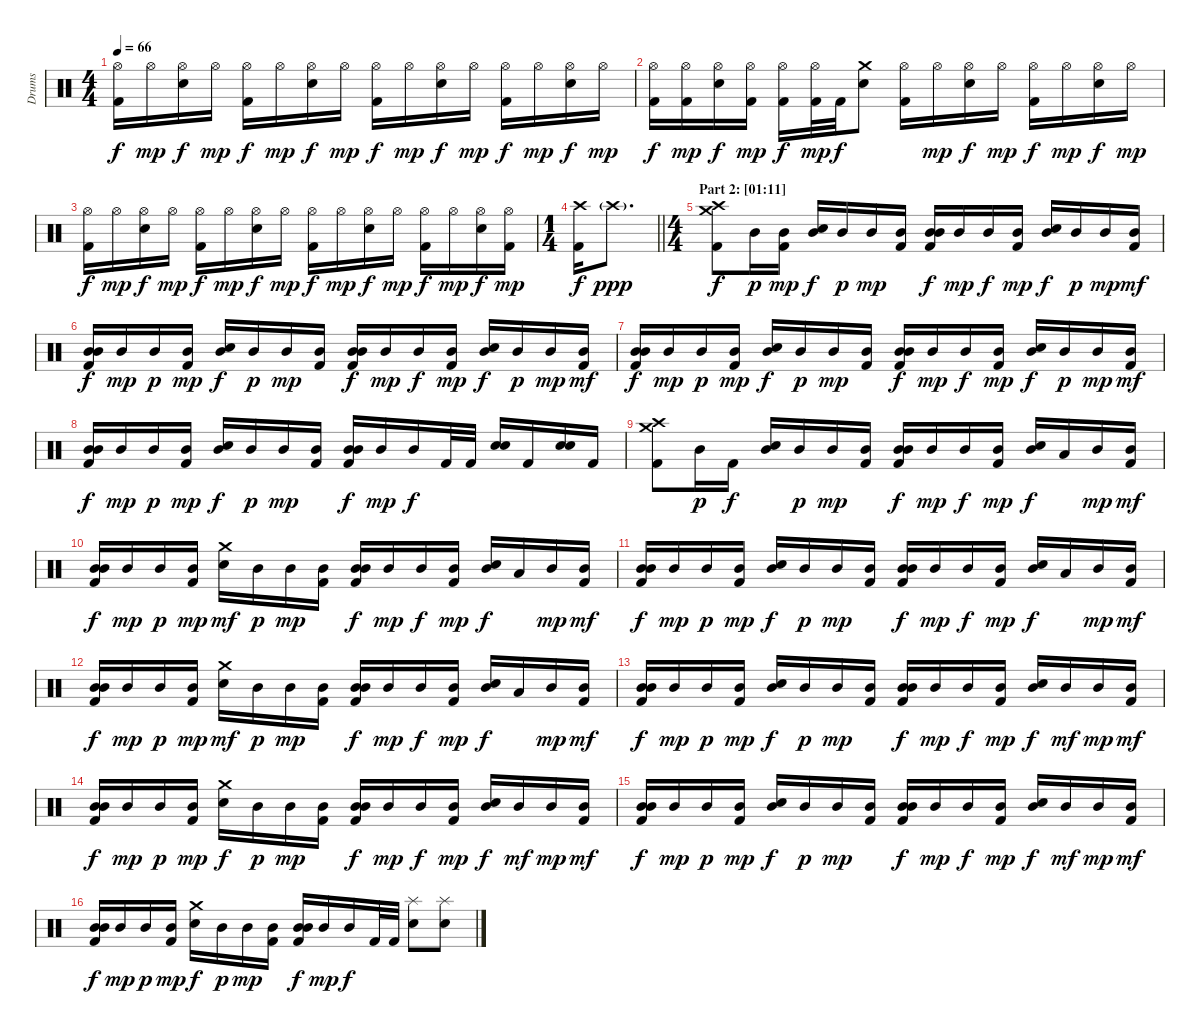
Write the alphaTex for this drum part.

\track ("Drums" "Drums") {instrument percussion}
\staff {score}
\articulation defaults
\ts (4 4)
\tempo 66
\clef neutral
\ks c
("Hi-Hat (open)" "Kick (hit) 2").16{dy f} "Hi-Hat (open)".16{dy mp} ("Hi-Hat (open)" "Electric Snare (hit)").16{dy f} "Hi-Hat (open)".16{dy mp} ("Hi-Hat (open)" "Kick (hit) 2").16{dy f} "Hi-Hat (open)".16{dy mp} ("Hi-Hat (open)" "Electric Snare (hit)").16{dy f} "Hi-Hat (open)".16{dy mp} ("Hi-Hat (open)" "Kick (hit) 2").16{dy f} "Hi-Hat (open)".16{dy mp} ("Hi-Hat (open)" "Electric Snare (hit)").16{dy f} "Hi-Hat (open)".16{dy mp} ("Hi-Hat (open)" "Kick (hit) 2").16{dy f} "Hi-Hat (open)".16{dy mp} ("Hi-Hat (open)" "Electric Snare (hit)").16{dy f} "Hi-Hat (open)".16{dy mp} |
("Hi-Hat (open)" "Kick (hit) 2").16{dy f} ("Hi-Hat (open)" "Kick (hit) 2").16{dy mp} ("Hi-Hat (open)" "Electric Snare (hit)").16{dy f} ("Hi-Hat (open)" "Kick (hit) 2").16{dy mp} ("Hi-Hat (open)" "Kick (hit) 2").16{dy f} ("Hi-Hat (open)" "Kick (hit) 2").32{dy mp} "Kick (hit) 2".32{dy f} ("Crash medium (hit)" "Electric Snare (hit)").8 ("Hi-Hat (open)" "Kick (hit) 2").16 "Hi-Hat (open)".16{dy mp} ("Hi-Hat (open)" "Electric Snare (hit)").16{dy f} "Hi-Hat (open)".16{dy mp} ("Hi-Hat (open)" "Kick (hit) 2").16{dy f} "Hi-Hat (open)".16{dy mp} ("Hi-Hat (open)" "Electric Snare (hit)").16{dy f} "Hi-Hat (open)".16{dy mp} |
("Hi-Hat (open)" "Kick (hit) 2").16{dy f} "Hi-Hat (open)".16{dy mp} ("Hi-Hat (open)" "Electric Snare (hit)").16{dy f} "Hi-Hat (open)".16{dy mp} ("Hi-Hat (open)" "Kick (hit) 2").16{dy f} "Hi-Hat (open)".16{dy mp} ("Hi-Hat (open)" "Electric Snare (hit)").16{dy f} "Hi-Hat (open)".16{dy mp} ("Hi-Hat (open)" "Kick (hit) 2").16{dy f} "Hi-Hat (open)".16{dy mp} ("Hi-Hat (open)" "Electric Snare (hit)").16{dy f} "Hi-Hat (open)".16{dy mp} ("Hi-Hat (open)" "Kick (hit) 2").16{dy f} "Hi-Hat (open)".16{dy mp} ("Hi-Hat (open)" "Electric Snare (hit)").16{dy f} ("Hi-Hat (open)" "Kick (hit) 2").16{dy mp} |
\ts (1 4)
\barLineRight lightlight
("Crash high (hit)" "Kick (hit) 2").16{dy f} "Crash high (hit)"{g}.8{d dy ppp} |
\ts (4 4)
\section ("" "Part 2: [01:11]")
("Crash high (hit)" "Crash medium (hit)" "Kick (hit) 2").8{dy f} "Mid Tom (hit)".16{dy p} ("Mid Tom (hit)" "Kick (hit) 2").16{dy mp} ("Mid Tom (hit)" "Electric Snare (hit)").16{dy f} "Mid Tom (hit)".16{dy p} "Mid Tom (hit)".16{dy mp} ("Mid Tom (hit)" "Kick (hit) 2").16 ("Mid Tom (hit)" "Mid Tom (hit)" "Kick (hit) 2").16{dy f} "Mid Tom (hit)".16{dy mp} "Mid Tom (hit)".16{dy f} ("Mid Tom (hit)" "Kick (hit) 2").16{dy mp} ("Mid Tom (hit)" "Electric Snare (hit)").16{dy f} "Mid Tom (hit)".16{dy p} "Mid Tom (hit)".16{dy mp} ("Mid Tom (hit)" "Kick (hit) 2").16{dy mf} |
("Mid Tom (hit)" "Mid Tom (hit)" "Kick (hit) 2").16{dy f} "Mid Tom (hit)".16{dy mp} "Mid Tom (hit)".16{dy p} ("Mid Tom (hit)" "Kick (hit) 2").16{dy mp} ("Mid Tom (hit)" "Electric Snare (hit)").16{dy f} "Mid Tom (hit)".16{dy p} "Mid Tom (hit)".16{dy mp} ("Mid Tom (hit)" "Kick (hit) 2").16 ("Mid Tom (hit)" "Mid Tom (hit)" "Kick (hit) 2").16{dy f} "Mid Tom (hit)".16{dy mp} "Mid Tom (hit)".16{dy f} ("Mid Tom (hit)" "Kick (hit) 2").16{dy mp} ("Mid Tom (hit)" "Electric Snare (hit)").16{dy f} "Mid Tom (hit)".16{dy p} "Mid Tom (hit)".16{dy mp} ("Mid Tom (hit)" "Kick (hit) 2").16{dy mf} |
("Mid Tom (hit)" "Mid Tom (hit)" "Kick (hit) 2").16{dy f} "Mid Tom (hit)".16{dy mp} "Mid Tom (hit)".16{dy p} ("Mid Tom (hit)" "Kick (hit) 2").16{dy mp} ("Mid Tom (hit)" "Electric Snare (hit)").16{dy f} "Mid Tom (hit)".16{dy p} "Mid Tom (hit)".16{dy mp} ("Mid Tom (hit)" "Kick (hit) 2").16 ("Mid Tom (hit)" "Mid Tom (hit)" "Kick (hit) 2").16{dy f} "Mid Tom (hit)".16{dy mp} "Mid Tom (hit)".16{dy f} ("Mid Tom (hit)" "Kick (hit) 2").16{dy mp} ("Mid Tom (hit)" "Electric Snare (hit)").16{dy f} "Mid Tom (hit)".16{dy p} "Mid Tom (hit)".16{dy mp} ("Mid Tom (hit)" "Kick (hit) 2").16{dy mf} |
("Mid Tom (hit)" "Mid Tom (hit)" "Kick (hit) 2").16{dy f} "Mid Tom (hit)".16{dy mp} "Mid Tom (hit)".16{dy p} ("Mid Tom (hit)" "Kick (hit) 2").16{dy mp} ("Mid Tom (hit)" "Electric Snare (hit)").16{dy f} "Mid Tom (hit)".16{dy p} "Mid Tom (hit)".16{dy mp} ("Mid Tom (hit)" "Kick (hit) 2").16 ("Mid Tom (hit)" "Mid Tom (hit)" "Kick (hit) 2").16{dy f} "Mid Tom (hit)".16{dy mp} "Mid Tom (hit)".16{dy f} "Kick (hit) 2".32 "Kick (hit) 2".32 ("Electric Snare (hit)" "Electric Snare (hit)").16{bd 60} "Kick (hit) 2".16 ("Electric Snare (hit)" "Electric Snare (hit)").16{bd 60} "Kick (hit) 2".16 |
("Crash high (hit)" "Crash medium (hit)" "Kick (hit) 2").8 "Mid Tom (hit)".16{dy p} "Kick (hit) 2".16{dy f} ("Mid Tom (hit)" "Electric Snare (hit)").16 "Mid Tom (hit)".16{dy p} "Mid Tom (hit)".16{dy mp} ("Mid Tom (hit)" "Kick (hit) 2").16 ("Mid Tom (hit)" "Mid Tom (hit)" "Kick (hit) 2").16{dy f} "Mid Tom (hit)".16{dy mp} "Mid Tom (hit)".16{dy f} ("Mid Tom (hit)" "Kick (hit) 2").16{dy mp} ("Mid Tom (hit)" "Electric Snare (hit)").16{dy f} "Low Tom (hit)".16 "Mid Tom (hit)".16{dy mp} ("Mid Tom (hit)" "Kick (hit) 2").16{dy mf} |
("Mid Tom (hit)" "Mid Tom (hit)" "Kick (hit) 2").16{dy f} "Mid Tom (hit)".16{dy mp} "Mid Tom (hit)".16{dy p} ("Mid Tom (hit)" "Kick (hit) 2").16{dy mp} ("Crash medium (hit)" "Electric Snare (hit)").16{dy mf} "Mid Tom (hit)".16{dy p} "Mid Tom (hit)".16{dy mp} ("Mid Tom (hit)" "Kick (hit) 2").16 ("Mid Tom (hit)" "Mid Tom (hit)" "Kick (hit) 2").16{dy f} "Mid Tom (hit)".16{dy mp} "Mid Tom (hit)".16{dy f} ("Mid Tom (hit)" "Kick (hit) 2").16{dy mp} ("Mid Tom (hit)" "Electric Snare (hit)").16{dy f} "Low Tom (hit)".16 "Mid Tom (hit)".16{dy mp} ("Mid Tom (hit)" "Kick (hit) 2").16{dy mf} |
("Mid Tom (hit)" "Mid Tom (hit)" "Kick (hit) 2").16{dy f} "Mid Tom (hit)".16{dy mp} "Mid Tom (hit)".16{dy p} ("Mid Tom (hit)" "Kick (hit) 2").16{dy mp} ("Mid Tom (hit)" "Electric Snare (hit)").16{dy f} "Mid Tom (hit)".16{dy p} "Mid Tom (hit)".16{dy mp} ("Mid Tom (hit)" "Kick (hit) 2").16 ("Mid Tom (hit)" "Mid Tom (hit)" "Kick (hit) 2").16{dy f} "Mid Tom (hit)".16{dy mp} "Mid Tom (hit)".16{dy f} ("Mid Tom (hit)" "Kick (hit) 2").16{dy mp} ("Mid Tom (hit)" "Electric Snare (hit)").16{dy f} "Low Tom (hit)".16 "Mid Tom (hit)".16{dy mp} ("Mid Tom (hit)" "Kick (hit) 2").16{dy mf} |
("Mid Tom (hit)" "Mid Tom (hit)" "Kick (hit) 2").16{dy f} "Mid Tom (hit)".16{dy mp} "Mid Tom (hit)".16{dy p} ("Mid Tom (hit)" "Kick (hit) 2").16{dy mp} ("Crash medium (hit)" "Electric Snare (hit)").16{dy mf} "Mid Tom (hit)".16{dy p} "Mid Tom (hit)".16{dy mp} ("Mid Tom (hit)" "Kick (hit) 2").16 ("Mid Tom (hit)" "Mid Tom (hit)" "Kick (hit) 2").16{dy f} "Mid Tom (hit)".16{dy mp} "Mid Tom (hit)".16{dy f} ("Mid Tom (hit)" "Kick (hit) 2").16{dy mp} ("Mid Tom (hit)" "Electric Snare (hit)").16{dy f} "Low Tom (hit)".16 "Mid Tom (hit)".16{dy mp} ("Mid Tom (hit)" "Kick (hit) 2").16{dy mf} |
("Mid Tom (hit)" "Mid Tom (hit)" "Kick (hit) 2").16{dy f} "Mid Tom (hit)".16{dy mp} "Mid Tom (hit)".16{dy p} ("Mid Tom (hit)" "Kick (hit) 2").16{dy mp} ("Mid Tom (hit)" "Electric Snare (hit)").16{dy f} "Mid Tom (hit)".16{dy p} "Mid Tom (hit)".16{dy mp} ("Mid Tom (hit)" "Kick (hit) 2").16 ("Mid Tom (hit)" "Mid Tom (hit)" "Kick (hit) 2").16{dy f} "Mid Tom (hit)".16{dy mp} "Mid Tom (hit)".16{dy f} ("Mid Tom (hit)" "Kick (hit) 2").16{dy mp} ("Mid Tom (hit)" "Electric Snare (hit)").16{dy f} "Mid Tom (hit)".16{dy mf} "Mid Tom (hit)".16{dy mp} ("Mid Tom (hit)" "Kick (hit) 2").16{dy mf} |
("Mid Tom (hit)" "Mid Tom (hit)" "Kick (hit) 2").16{dy f} "Mid Tom (hit)".16{dy mp} "Mid Tom (hit)".16{dy p} ("Mid Tom (hit)" "Kick (hit) 2").16{dy mp} ("Crash medium (hit)" "Electric Snare (hit)").16{dy f} "Mid Tom (hit)".16{dy p} "Mid Tom (hit)".16{dy mp} ("Mid Tom (hit)" "Kick (hit) 2").16 ("Mid Tom (hit)" "Mid Tom (hit)" "Kick (hit) 2").16{dy f} "Mid Tom (hit)".16{dy mp} "Mid Tom (hit)".16{dy f} ("Mid Tom (hit)" "Kick (hit) 2").16{dy mp} ("Mid Tom (hit)" "Electric Snare (hit)").16{dy f} "Mid Tom (hit)".16{dy mf} "Mid Tom (hit)".16{dy mp} ("Mid Tom (hit)" "Kick (hit) 2").16{dy mf} |
("Mid Tom (hit)" "Mid Tom (hit)" "Kick (hit) 2").16{dy f} "Mid Tom (hit)".16{dy mp} "Mid Tom (hit)".16{dy p} ("Mid Tom (hit)" "Kick (hit) 2").16{dy mp} ("Mid Tom (hit)" "Electric Snare (hit)").16{dy f} "Mid Tom (hit)".16{dy p} "Mid Tom (hit)".16{dy mp} ("Mid Tom (hit)" "Kick (hit) 2").16 ("Mid Tom (hit)" "Mid Tom (hit)" "Kick (hit) 2").16{dy f} "Mid Tom (hit)".16{dy mp} "Mid Tom (hit)".16{dy f} ("Mid Tom (hit)" "Kick (hit) 2").16{dy mp} ("Mid Tom (hit)" "Electric Snare (hit)").16{dy f} "Mid Tom (hit)".16{dy mf} "Mid Tom (hit)".16{dy mp} ("Mid Tom (hit)" "Kick (hit) 2").16{dy mf} |
("Mid Tom (hit)" "Mid Tom (hit)" "Kick (hit) 2").16{dy f} "Mid Tom (hit)".16{dy mp} "Mid Tom (hit)".16{dy p} ("Mid Tom (hit)" "Kick (hit) 2").16{dy mp} ("Crash medium (hit)" "Electric Snare (hit)").16{dy f} "Mid Tom (hit)".16{dy p} "Mid Tom (hit)".16{dy mp} ("Mid Tom (hit)" "Kick (hit) 2").16 ("Mid Tom (hit)" "Mid Tom (hit)" "Kick (hit) 2").16{dy f} "Mid Tom (hit)".16{dy mp} "Mid Tom (hit)".16{dy f} "Kick (hit) 2".32 "Kick (hit) 2".32 ("Splash (hit)" "Electric Snare (hit)").8 ("Splash (hit)" "Electric Snare (hit)").8
